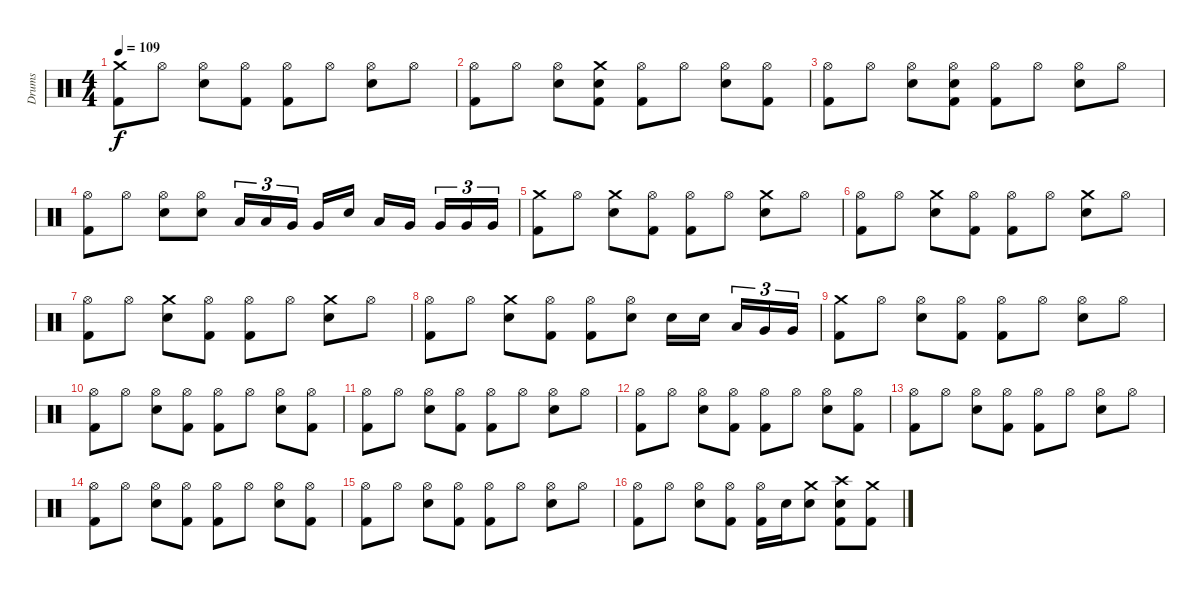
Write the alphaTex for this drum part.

\track ("Drums" "Drums") {instrument percussion}
\staff {score}
\articulation defaults
\ts (4 4)
\tempo 109
\clef neutral
\ks c
("Crash medium (hit)" "Kick (hit) 2").8{dy f} "Hi-Hat (open)".8 ("Hi-Hat (open)" "Electric Snare (hit)").8 ("Hi-Hat (open)" "Kick (hit) 2").8 ("Hi-Hat (open)" "Kick (hit) 2").8 "Hi-Hat (open)".8 ("Hi-Hat (open)" "Electric Snare (hit)").8 "Hi-Hat (open)".8 |
("Hi-Hat (open)" "Kick (hit) 2").8 "Hi-Hat (open)".8 ("Hi-Hat (open)" "Electric Snare (hit)").8 ("Crash medium (hit)" "Electric Snare (hit)" "Kick (hit) 2").8 ("Hi-Hat (open)" "Kick (hit) 2").8 "Hi-Hat (open)".8 ("Hi-Hat (open)" "Electric Snare (hit)").8 ("Hi-Hat (open)" "Kick (hit) 2").8 |
("Hi-Hat (open)" "Kick (hit) 2").8 "Hi-Hat (open)".8 ("Hi-Hat (open)" "Electric Snare (hit)").8 ("Hi-Hat (open)" "Electric Snare (hit)" "Kick (hit) 2").8 ("Hi-Hat (open)" "Kick (hit) 2").8 "Hi-Hat (open)".8 ("Hi-Hat (open)" "Electric Snare (hit)").8 "Hi-Hat (open)".8 |
("Hi-Hat (open)" "Kick (hit) 2").8 "Hi-Hat (open)".8 ("Hi-Hat (open)" "Electric Snare (hit)").8 ("Hi-Hat (open)" "Electric Snare (hit)").8 "Low Tom (hit)".16{tu (3 2)} "Low Tom (hit)".16{tu (3 2)} "Very Low Tom (hit)".16{tu (3 2)} "Very Low Tom (hit)".16 "Electric Snare (hit)".16 "Low Tom (hit)".16 "Very Low Tom (hit)".16 "Very Low Tom (hit)".16{tu (3 2)} "Very Low Tom (hit)".16{tu (3 2)} "Very Low Tom (hit)".16{tu (3 2)} |
("Crash medium (hit)" "Kick (hit) 2").8 "Hi-Hat (open)".8 ("Crash medium (hit)" "Electric Snare (hit)").8 ("Hi-Hat (open)" "Kick (hit) 2").8 ("Hi-Hat (open)" "Kick (hit) 2").8 "Hi-Hat (open)".8 ("Crash medium (hit)" "Electric Snare (hit)").8 "Hi-Hat (open)".8 |
("Hi-Hat (open)" "Kick (hit) 2").8 "Hi-Hat (open)".8 ("Crash medium (hit)" "Electric Snare (hit)").8 ("Hi-Hat (open)" "Kick (hit) 2").8 ("Hi-Hat (open)" "Kick (hit) 2").8 "Hi-Hat (open)".8 ("Crash medium (hit)" "Electric Snare (hit)").8 "Hi-Hat (open)".8 |
("Hi-Hat (open)" "Kick (hit) 2").8 "Hi-Hat (open)".8 ("Crash medium (hit)" "Electric Snare (hit)").8 ("Hi-Hat (open)" "Kick (hit) 2").8 ("Hi-Hat (open)" "Kick (hit) 2").8 "Hi-Hat (open)".8 ("Crash medium (hit)" "Electric Snare (hit)").8 "Hi-Hat (open)".8 |
("Hi-Hat (open)" "Kick (hit) 2").8 "Hi-Hat (open)".8 ("Crash medium (hit)" "Electric Snare (hit)").8 ("Hi-Hat (open)" "Kick (hit) 2").8 ("Hi-Hat (open)" "Kick (hit) 2").8 ("Hi-Hat (open)" "Electric Snare (hit)").8 "Electric Snare (hit)".16 "Electric Snare (hit)".16 "Low Tom (hit)".16{tu (3 2)} "Very Low Tom (hit)".16{tu (3 2)} "Very Low Tom (hit)".16{tu (3 2)} |
("Crash medium (hit)" "Kick (hit) 2").8 "Hi-Hat (open)".8 ("Hi-Hat (open)" "Electric Snare (hit)").8 ("Hi-Hat (open)" "Kick (hit) 2").8 ("Hi-Hat (open)" "Kick (hit) 2").8 "Hi-Hat (open)".8 ("Hi-Hat (open)" "Electric Snare (hit)").8 "Hi-Hat (open)".8 |
("Hi-Hat (open)" "Kick (hit) 2").8 "Hi-Hat (open)".8 ("Hi-Hat (open)" "Electric Snare (hit)").8 ("Hi-Hat (open)" "Kick (hit) 2").8 ("Hi-Hat (open)" "Kick (hit) 2").8 "Hi-Hat (open)".8 ("Hi-Hat (open)" "Electric Snare (hit)").8 ("Hi-Hat (open)" "Kick (hit) 2").8 |
("Hi-Hat (open)" "Kick (hit) 2").8 "Hi-Hat (open)".8 ("Hi-Hat (open)" "Electric Snare (hit)").8 ("Hi-Hat (open)" "Kick (hit) 2").8 ("Hi-Hat (open)" "Kick (hit) 2").8 "Hi-Hat (open)".8 ("Hi-Hat (open)" "Electric Snare (hit)").8 "Hi-Hat (open)".8 |
("Hi-Hat (open)" "Kick (hit) 2").8 "Hi-Hat (open)".8 ("Hi-Hat (open)" "Electric Snare (hit)").8 ("Hi-Hat (open)" "Kick (hit) 2").8 ("Hi-Hat (open)" "Kick (hit) 2").8 "Hi-Hat (open)".8 ("Hi-Hat (open)" "Electric Snare (hit)").8 ("Hi-Hat (open)" "Kick (hit) 2").8 |
("Hi-Hat (open)" "Kick (hit) 2").8 "Hi-Hat (open)".8 ("Hi-Hat (open)" "Electric Snare (hit)").8 ("Hi-Hat (open)" "Kick (hit) 2").8 ("Hi-Hat (open)" "Kick (hit) 2").8 "Hi-Hat (open)".8 ("Hi-Hat (open)" "Electric Snare (hit)").8 "Hi-Hat (open)".8 |
("Hi-Hat (open)" "Kick (hit) 2").8 "Hi-Hat (open)".8 ("Hi-Hat (open)" "Electric Snare (hit)").8 ("Hi-Hat (open)" "Kick (hit) 2").8 ("Hi-Hat (open)" "Kick (hit) 2").8 "Hi-Hat (open)".8 ("Hi-Hat (open)" "Electric Snare (hit)").8 ("Hi-Hat (open)" "Kick (hit) 2").8 |
("Hi-Hat (open)" "Kick (hit) 2").8 "Hi-Hat (open)".8 ("Hi-Hat (open)" "Electric Snare (hit)").8 ("Hi-Hat (open)" "Kick (hit) 2").8 ("Hi-Hat (open)" "Kick (hit) 2").8 "Hi-Hat (open)".8 ("Hi-Hat (open)" "Electric Snare (hit)").8 "Hi-Hat (open)".8 |
("Hi-Hat (open)" "Kick (hit) 2").8 "Hi-Hat (open)".8 ("Hi-Hat (open)" "Electric Snare (hit)").8 ("Hi-Hat (open)" "Kick (hit) 2").8 ("Hi-Hat (open)" "Kick (hit) 2").16 "Electric Snare (hit)".16 ("Crash medium (hit)" "Electric Snare (hit)").8 ("Crash high (hit)" "Electric Snare (hit)" "Kick (hit) 2").8 ("Crash medium (hit)" "Kick (hit) 2").8
